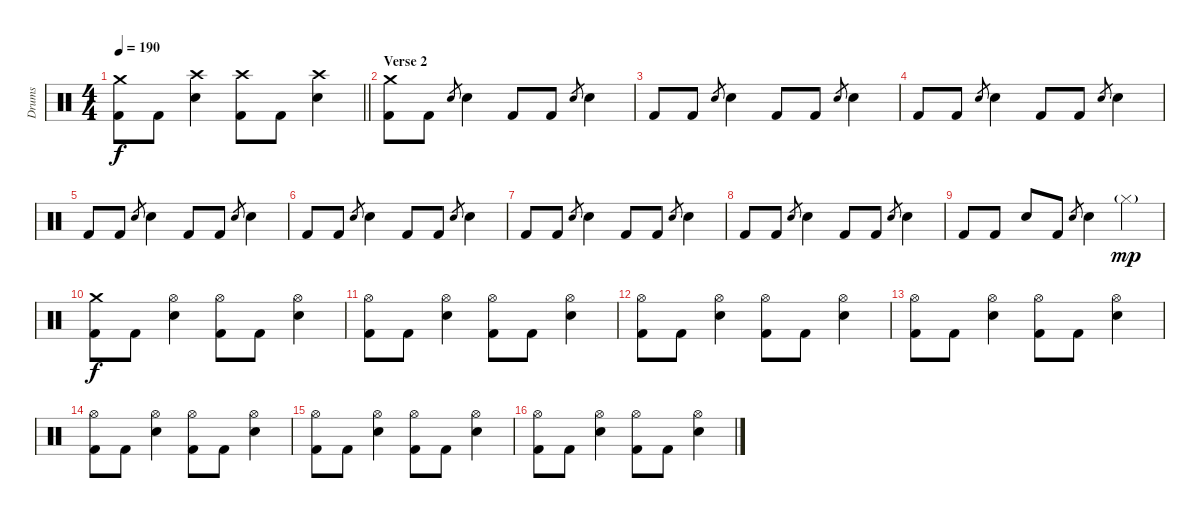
\track ("Drums" "Drums") {instrument percussion}
\staff {score}
\articulation defaults
\ts (4 4)
\tempo 190
\clef neutral
\barLineRight lightlight
\ks c
("Crash medium (hit)" "Kick (hit) 2").8{dy f} "Kick (hit) 2".8 ("Crash high (hit)" "Electric Snare (hit)").4 ("Crash high (hit)" "Kick (hit) 2").8 "Kick (hit) 2".8 ("Crash high (hit)" "Electric Snare (hit)").4 |
\section ("" "Verse 2")
("Crash medium (hit)" "Kick (hit) 2").8 "Kick (hit) 2".8 "Electric Snare (hit)".8{gr} "Electric Snare (hit)".4 "Kick (hit) 2".8 "Kick (hit) 2".8 "Electric Snare (hit)".8{gr} "Electric Snare (hit)".4 |
"Kick (hit) 2".8 "Kick (hit) 2".8 "Electric Snare (hit)".8{gr} "Electric Snare (hit)".4 "Kick (hit) 2".8 "Kick (hit) 2".8 "Electric Snare (hit)".8{gr} "Electric Snare (hit)".4 |
"Kick (hit) 2".8 "Kick (hit) 2".8 "Electric Snare (hit)".8{gr} "Electric Snare (hit)".4 "Kick (hit) 2".8 "Kick (hit) 2".8 "Electric Snare (hit)".8{gr} "Electric Snare (hit)".4 |
"Kick (hit) 2".8 "Kick (hit) 2".8 "Electric Snare (hit)".8{gr} "Electric Snare (hit)".4 "Kick (hit) 2".8 "Kick (hit) 2".8 "Electric Snare (hit)".8{gr} "Electric Snare (hit)".4 |
"Kick (hit) 2".8 "Kick (hit) 2".8 "Electric Snare (hit)".8{gr} "Electric Snare (hit)".4 "Kick (hit) 2".8 "Kick (hit) 2".8 "Electric Snare (hit)".8{gr} "Electric Snare (hit)".4 |
"Kick (hit) 2".8 "Kick (hit) 2".8 "Electric Snare (hit)".8{gr} "Electric Snare (hit)".4 "Kick (hit) 2".8 "Kick (hit) 2".8 "Electric Snare (hit)".8{gr} "Electric Snare (hit)".4 |
"Kick (hit) 2".8 "Kick (hit) 2".8 "Electric Snare (hit)".8{gr} "Electric Snare (hit)".4 "Kick (hit) 2".8 "Kick (hit) 2".8 "Electric Snare (hit)".8{gr} "Electric Snare (hit)".4 |
"Kick (hit) 2".8 "Kick (hit) 2".8 "Electric Snare (hit)".8 "Kick (hit) 2".8 "Electric Snare (hit)".8{gr} "Electric Snare (hit)".4 "Hi-Hat (closed)"{g}.4{dy mp} |
("Crash medium (hit)" "Kick (hit) 2").8{dy f} "Kick (hit) 2".8 ("Hi-Hat (open)" "Electric Snare (hit)").4 ("Hi-Hat (open)" "Kick (hit) 2").8 "Kick (hit) 2".8 ("Hi-Hat (open)" "Electric Snare (hit)").4 |
("Hi-Hat (open)" "Kick (hit) 2").8 "Kick (hit) 2".8 ("Hi-Hat (open)" "Electric Snare (hit)").4 ("Hi-Hat (open)" "Kick (hit) 2").8 "Kick (hit) 2".8 ("Hi-Hat (open)" "Electric Snare (hit)").4 |
("Hi-Hat (open)" "Kick (hit) 2").8 "Kick (hit) 2".8 ("Hi-Hat (open)" "Electric Snare (hit)").4 ("Hi-Hat (open)" "Kick (hit) 2").8 "Kick (hit) 2".8 ("Hi-Hat (open)" "Electric Snare (hit)").4 |
("Hi-Hat (open)" "Kick (hit) 2").8 "Kick (hit) 2".8 ("Hi-Hat (open)" "Electric Snare (hit)").4 ("Hi-Hat (open)" "Kick (hit) 2").8 "Kick (hit) 2".8 ("Hi-Hat (open)" "Electric Snare (hit)").4 |
("Hi-Hat (open)" "Kick (hit) 2").8 "Kick (hit) 2".8 ("Hi-Hat (open)" "Electric Snare (hit)").4 ("Hi-Hat (open)" "Kick (hit) 2").8 "Kick (hit) 2".8 ("Hi-Hat (open)" "Electric Snare (hit)").4 |
("Hi-Hat (open)" "Kick (hit) 2").8 "Kick (hit) 2".8 ("Hi-Hat (open)" "Electric Snare (hit)").4 ("Hi-Hat (open)" "Kick (hit) 2").8 "Kick (hit) 2".8 ("Hi-Hat (open)" "Electric Snare (hit)").4 |
("Hi-Hat (open)" "Kick (hit) 2").8 "Kick (hit) 2".8 ("Hi-Hat (open)" "Electric Snare (hit)").4 ("Hi-Hat (open)" "Kick (hit) 2").8 "Kick (hit) 2".8 ("Hi-Hat (open)" "Electric Snare (hit)").4
